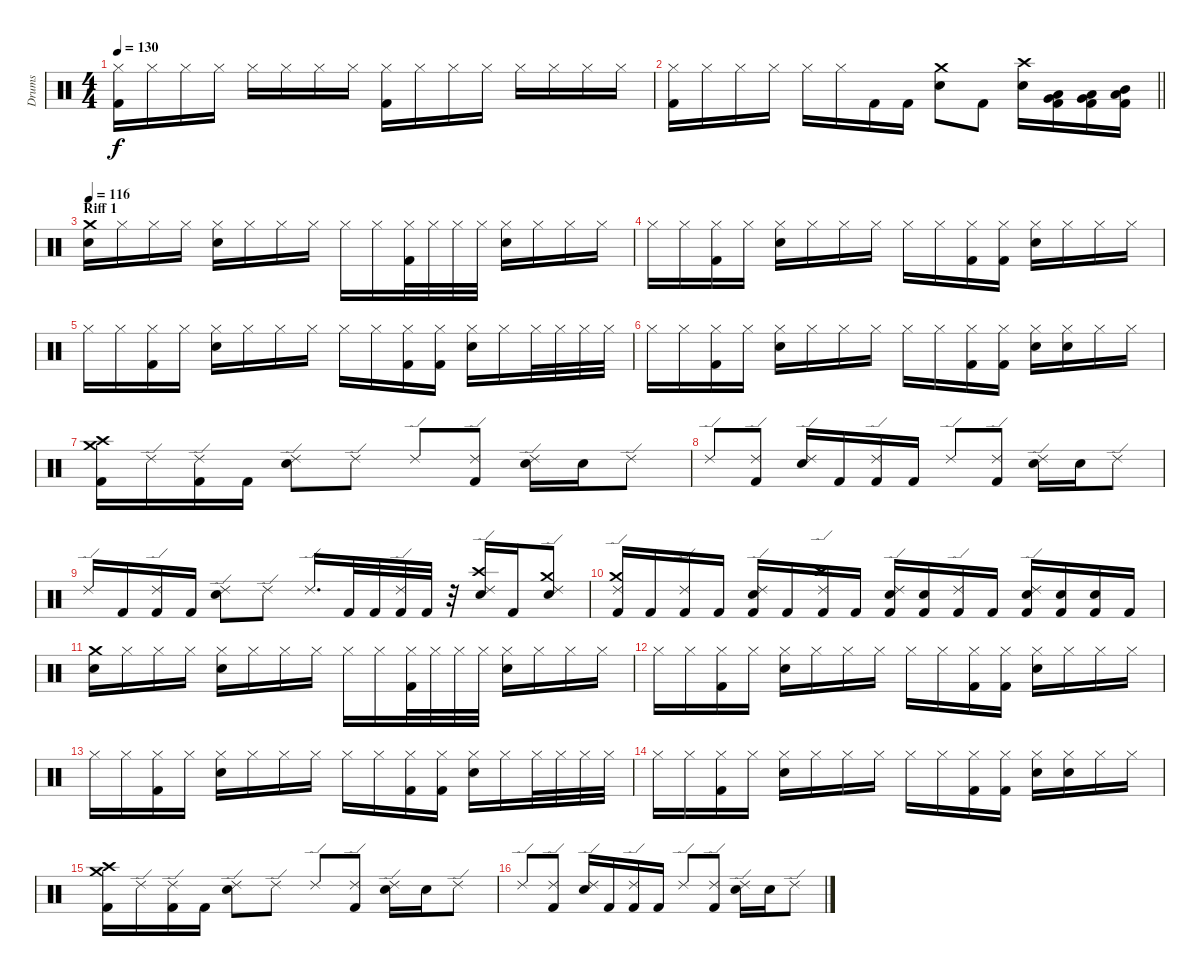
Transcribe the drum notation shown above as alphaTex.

\track ("Drums" "Drums") {instrument percussion}
\staff {score}
\articulation defaults
\ts (4 4)
\tempo 130
\clef neutral
\ks c
("Hi-Hat (closed)" "Kick (hit) 2").16{dy f} "Hi-Hat (closed)".16 "Hi-Hat (closed)".16 "Hi-Hat (closed)".16 "Hi-Hat (closed)".16 "Hi-Hat (closed)".16 "Hi-Hat (closed)".16 "Hi-Hat (closed)".16 ("Hi-Hat (closed)" "Kick (hit) 2").16 "Hi-Hat (closed)".16 "Hi-Hat (closed)".16 "Hi-Hat (closed)".16 "Hi-Hat (closed)".16 "Hi-Hat (closed)".16 "Hi-Hat (closed)".16 "Hi-Hat (closed)".16 |
\barLineRight lightlight
("Hi-Hat (closed)" "Kick (hit) 2").16 "Hi-Hat (closed)".16 "Hi-Hat (closed)".16 "Hi-Hat (closed)".16 "Hi-Hat (closed)".16 "Hi-Hat (closed)".16 "Kick (hit) 2".16 "Kick (hit) 2".16 ("Snare (hit) 2" "Crash medium (hit)").8 "Kick (hit) 2".8 ("Snare (hit) 2" "Crash high (hit)").16 ("Kick (hit) 2" "Very Low Tom (hit)" "Low Floor Tom (hit)").16 ("Kick (hit) 2" "Low Tom (hit)" "Very Low Tom (hit)").16 ("Kick (hit) 2" "Mid Tom (hit)" "Low Tom (hit)").16 |
\section ("" "Riff 1")
\tempo 116
("Snare (hit) 2" "Crash medium (hit)").16 "Hi-Hat (closed)".16 "Hi-Hat (closed)".16 "Hi-Hat (closed)".16 ("Hi-Hat (closed)" "Snare (hit) 2").16 "Hi-Hat (closed)".16 "Hi-Hat (closed)".16 "Hi-Hat (closed)".16 "Hi-Hat (closed)".16 "Hi-Hat (closed)".16 ("Hi-Hat (closed)" "Kick (hit) 2").32 "Hi-Hat (closed)".32 "Hi-Hat (closed)".32 "Hi-Hat (closed)".32 ("Hi-Hat (closed)" "Snare (hit) 2").16 "Hi-Hat (closed)".16 "Hi-Hat (closed)".16 "Hi-Hat (closed)".16 |
"Hi-Hat (closed)".16 "Hi-Hat (closed)".16 ("Hi-Hat (closed)" "Kick (hit) 2").16 "Hi-Hat (closed)".16 ("Hi-Hat (closed)" "Snare (hit) 2").16 "Hi-Hat (closed)".16 "Hi-Hat (closed)".16 "Hi-Hat (closed)".16 "Hi-Hat (closed)".16 "Hi-Hat (closed)".16 ("Hi-Hat (closed)" "Kick (hit) 2").16 ("Hi-Hat (closed)" "Kick (hit) 2").16 ("Hi-Hat (closed)" "Snare (hit) 2").16 "Hi-Hat (closed)".16 "Hi-Hat (closed)".16 "Hi-Hat (closed)".16 |
"Hi-Hat (closed)".16 "Hi-Hat (closed)".16 ("Hi-Hat (closed)" "Kick (hit) 2").16 "Hi-Hat (closed)".16 ("Hi-Hat (closed)" "Snare (hit) 2").16 "Hi-Hat (closed)".16 "Hi-Hat (closed)".16 "Hi-Hat (closed)".16 "Hi-Hat (closed)".16 "Hi-Hat (closed)".16 ("Hi-Hat (closed)" "Kick (hit) 2").16 ("Hi-Hat (closed)" "Kick (hit) 2").16 ("Hi-Hat (closed)" "Snare (hit) 2").16 "Hi-Hat (closed)".16 "Hi-Hat (closed)".32 "Hi-Hat (closed)".32 "Hi-Hat (closed)".32 "Hi-Hat (closed)".32 |
"Hi-Hat (closed)".16 "Hi-Hat (closed)".16 ("Hi-Hat (closed)" "Kick (hit) 2").16 "Hi-Hat (closed)".16 ("Hi-Hat (closed)" "Snare (hit) 2").16 "Hi-Hat (closed)".16 "Hi-Hat (closed)".16 "Hi-Hat (closed)".16 "Hi-Hat (closed)".16 "Hi-Hat (closed)".16 ("Hi-Hat (closed)" "Kick (hit) 2").16 ("Hi-Hat (closed)" "Kick (hit) 2").16 ("Hi-Hat (closed)" "Snare (hit) 2").16 ("Hi-Hat (closed)" "Snare (hit) 2").16 "Hi-Hat (closed)".16 "Hi-Hat (closed)".16 |
("Kick (hit) 2" "Crash medium (hit)" "Crash high (hit)").16 "Ride (edge) 2".16 ("Ride (edge) 2" "Kick (hit) 2").16 "Kick (hit) 2".16 ("Ride (edge) 2" "Snare (hit) 2").8 "Ride (edge) 2".8 "Ride (edge) 2".8 ("Ride (edge) 2" "Kick (hit) 2").8 ("Ride (edge) 2" "Snare (hit) 2").16 "Snare (hit) 2".16 "Ride (edge) 2".8 |
"Ride (edge) 2".8 ("Ride (edge) 2" "Kick (hit) 2").8 ("Ride (edge) 2" "Snare (hit) 2").16 "Kick (hit) 2".16 ("Ride (edge) 2" "Kick (hit) 2").16 "Kick (hit) 2".16 "Ride (edge) 2".8 ("Ride (edge) 2" "Kick (hit) 2").8 ("Ride (edge) 2" "Snare (hit) 2").16 "Snare (hit) 2".16 "Ride (edge) 2".8 |
"Ride (edge) 2".16 "Kick (hit) 2".16 ("Ride (edge) 2" "Kick (hit) 2").16 "Kick (hit) 2".16 ("Ride (edge) 2" "Snare (hit) 2").8 "Ride (edge) 2".8 "Ride (edge) 2".16{d} "Kick (hit) 2".32 "Kick (hit) 2".32 ("Ride (edge) 2" "Kick (hit) 2").32 "Kick (hit) 2".32 r.32 ("Ride (edge) 2" "Snare (hit) 2" "Crash high (hit)").16 "Kick (hit) 2".16 ("Ride (edge) 2" "Snare (hit) 2" "Crash medium (hit)").8 |
("Ride (edge) 2" "Kick (hit) 2" "Crash medium (hit)").16 "Kick (hit) 2".16 ("Ride (edge) 2" "Kick (hit) 2").16 "Kick (hit) 2".16 ("Ride (edge) 2" "Kick (hit) 2" "Snare (hit) 2").16 "Kick (hit) 2".16 ("Ride (edge) 2" "Kick (hit) 2" "Crash high (hit)").16 "Kick (hit) 2".16 ("Ride (edge) 2" "Kick (hit) 2" "Snare (hit) 2").16 ("Kick (hit) 2" "Snare (hit) 2").16 ("Ride (edge) 2" "Kick (hit) 2").16 "Kick (hit) 2".16 ("Ride (edge) 2" "Kick (hit) 2" "Snare (hit) 2").16 ("Kick (hit) 2" "Snare (hit) 2").16 ("Kick (hit) 2" "Snare (hit) 2").16 "Kick (hit) 2".16 |
("Snare (hit) 2" "Crash medium (hit)").16 "Hi-Hat (closed)".16 "Hi-Hat (closed)".16 "Hi-Hat (closed)".16 ("Hi-Hat (closed)" "Snare (hit) 2").16 "Hi-Hat (closed)".16 "Hi-Hat (closed)".16 "Hi-Hat (closed)".16 "Hi-Hat (closed)".16 "Hi-Hat (closed)".16 ("Hi-Hat (closed)" "Kick (hit) 2").32 "Hi-Hat (closed)".32 "Hi-Hat (closed)".32 "Hi-Hat (closed)".32 ("Hi-Hat (closed)" "Snare (hit) 2").16 "Hi-Hat (closed)".16 "Hi-Hat (closed)".16 "Hi-Hat (closed)".16 |
"Hi-Hat (closed)".16 "Hi-Hat (closed)".16 ("Hi-Hat (closed)" "Kick (hit) 2").16 "Hi-Hat (closed)".16 ("Hi-Hat (closed)" "Snare (hit) 2").16 "Hi-Hat (closed)".16 "Hi-Hat (closed)".16 "Hi-Hat (closed)".16 "Hi-Hat (closed)".16 "Hi-Hat (closed)".16 ("Hi-Hat (closed)" "Kick (hit) 2").16 ("Hi-Hat (closed)" "Kick (hit) 2").16 ("Hi-Hat (closed)" "Snare (hit) 2").16 "Hi-Hat (closed)".16 "Hi-Hat (closed)".16 "Hi-Hat (closed)".16 |
"Hi-Hat (closed)".16 "Hi-Hat (closed)".16 ("Hi-Hat (closed)" "Kick (hit) 2").16 "Hi-Hat (closed)".16 ("Hi-Hat (closed)" "Snare (hit) 2").16 "Hi-Hat (closed)".16 "Hi-Hat (closed)".16 "Hi-Hat (closed)".16 "Hi-Hat (closed)".16 "Hi-Hat (closed)".16 ("Hi-Hat (closed)" "Kick (hit) 2").16 ("Hi-Hat (closed)" "Kick (hit) 2").16 ("Hi-Hat (closed)" "Snare (hit) 2").16 "Hi-Hat (closed)".16 "Hi-Hat (closed)".32 "Hi-Hat (closed)".32 "Hi-Hat (closed)".32 "Hi-Hat (closed)".32 |
"Hi-Hat (closed)".16 "Hi-Hat (closed)".16 ("Hi-Hat (closed)" "Kick (hit) 2").16 "Hi-Hat (closed)".16 ("Hi-Hat (closed)" "Snare (hit) 2").16 "Hi-Hat (closed)".16 "Hi-Hat (closed)".16 "Hi-Hat (closed)".16 "Hi-Hat (closed)".16 "Hi-Hat (closed)".16 ("Hi-Hat (closed)" "Kick (hit) 2").16 ("Hi-Hat (closed)" "Kick (hit) 2").16 ("Hi-Hat (closed)" "Snare (hit) 2").16 ("Hi-Hat (closed)" "Snare (hit) 2").16 "Hi-Hat (closed)".16 "Hi-Hat (closed)".16 |
("Kick (hit) 2" "Crash medium (hit)" "Crash high (hit)").16 "Ride (edge) 2".16 ("Ride (edge) 2" "Kick (hit) 2").16 "Kick (hit) 2".16 ("Ride (edge) 2" "Snare (hit) 2").8 "Ride (edge) 2".8 "Ride (edge) 2".8 ("Ride (edge) 2" "Kick (hit) 2").8 ("Ride (edge) 2" "Snare (hit) 2").16 "Snare (hit) 2".16 "Ride (edge) 2".8 |
"Ride (edge) 2".8 ("Ride (edge) 2" "Kick (hit) 2").8 ("Ride (edge) 2" "Snare (hit) 2").16 "Kick (hit) 2".16 ("Ride (edge) 2" "Kick (hit) 2").16 "Kick (hit) 2".16 "Ride (edge) 2".8 ("Ride (edge) 2" "Kick (hit) 2").8 ("Ride (edge) 2" "Snare (hit) 2").16 "Snare (hit) 2".16 "Ride (edge) 2".8
